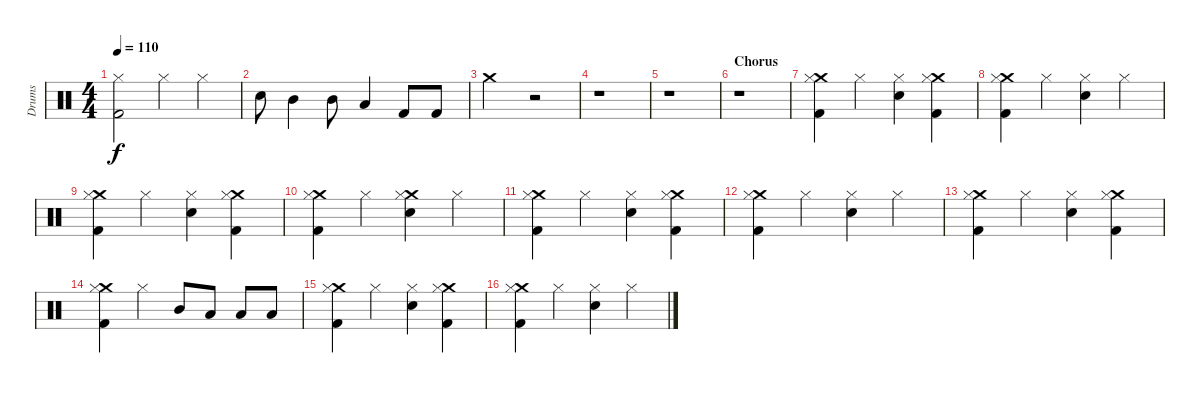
\track ("Drums" "Drums") {instrument percussion}
\staff {score}
\articulation defaults
\ts (4 4)
\tempo 110
\clef neutral
\ks c
("Hi-Hat (closed)" "Kick (hit) 2").2{dy f} "Hi-Hat (closed)".4 "Hi-Hat (closed)".4 |
"Snare (hit) 2".8 "Mid Tom (hit)".4 "Mid Tom (hit)".8 "Low Tom (hit)".4 "Kick (hit) 2".8 "Kick (hit) 2".8 |
"Crash medium (hit)".2 r.2 |
r.1 |
r.1 |
\section ("" "Chorus")
r.1 |
("Crash medium (hit)" "Kick (hit) 2" "Hi-Hat (closed)").4 "Hi-Hat (closed)".4 ("Snare (hit) 2" "Hi-Hat (closed)").4 ("Crash medium (hit)" "Kick (hit) 2" "Hi-Hat (closed)").4 |
("Crash medium (hit)" "Kick (hit) 2" "Hi-Hat (closed)").4 "Hi-Hat (closed)".4 ("Snare (hit) 2" "Hi-Hat (closed)").4 "Hi-Hat (closed)".4 |
("Crash medium (hit)" "Kick (hit) 2" "Hi-Hat (closed)").4 "Hi-Hat (closed)".4 ("Snare (hit) 2" "Hi-Hat (closed)").4 ("Crash medium (hit)" "Kick (hit) 2" "Hi-Hat (closed)").4 |
("Crash medium (hit)" "Kick (hit) 2" "Hi-Hat (closed)").4 "Hi-Hat (closed)".4 ("Crash medium (hit)" "Snare (hit) 2" "Hi-Hat (closed)").4 "Hi-Hat (closed)".4 |
("Crash medium (hit)" "Kick (hit) 2" "Hi-Hat (closed)").4 "Hi-Hat (closed)".4 ("Snare (hit) 2" "Hi-Hat (closed)").4 ("Crash medium (hit)" "Kick (hit) 2" "Hi-Hat (closed)").4 |
("Crash medium (hit)" "Kick (hit) 2" "Hi-Hat (closed)").4 "Hi-Hat (closed)".4 ("Snare (hit) 2" "Hi-Hat (closed)").4 "Hi-Hat (closed)".4 |
("Crash medium (hit)" "Kick (hit) 2" "Hi-Hat (closed)").4 "Hi-Hat (closed)".4 ("Snare (hit) 2" "Hi-Hat (closed)").4 ("Crash medium (hit)" "Kick (hit) 2" "Hi-Hat (closed)").4 |
("Crash medium (hit)" "Kick (hit) 2" "Hi-Hat (closed)").4 "Hi-Hat (closed)".4 "Mid Tom (hit)".8 "Low Tom (hit)".8 "Low Tom (hit)".8 "Low Tom (hit)".8 |
("Crash medium (hit)" "Kick (hit) 2" "Hi-Hat (closed)").4 "Hi-Hat (closed)".4 ("Snare (hit) 2" "Hi-Hat (closed)").4 ("Crash medium (hit)" "Kick (hit) 2" "Hi-Hat (closed)").4 |
("Crash medium (hit)" "Kick (hit) 2" "Hi-Hat (closed)").4 "Hi-Hat (closed)".4 ("Snare (hit) 2" "Hi-Hat (closed)").4 "Hi-Hat (closed)".4
